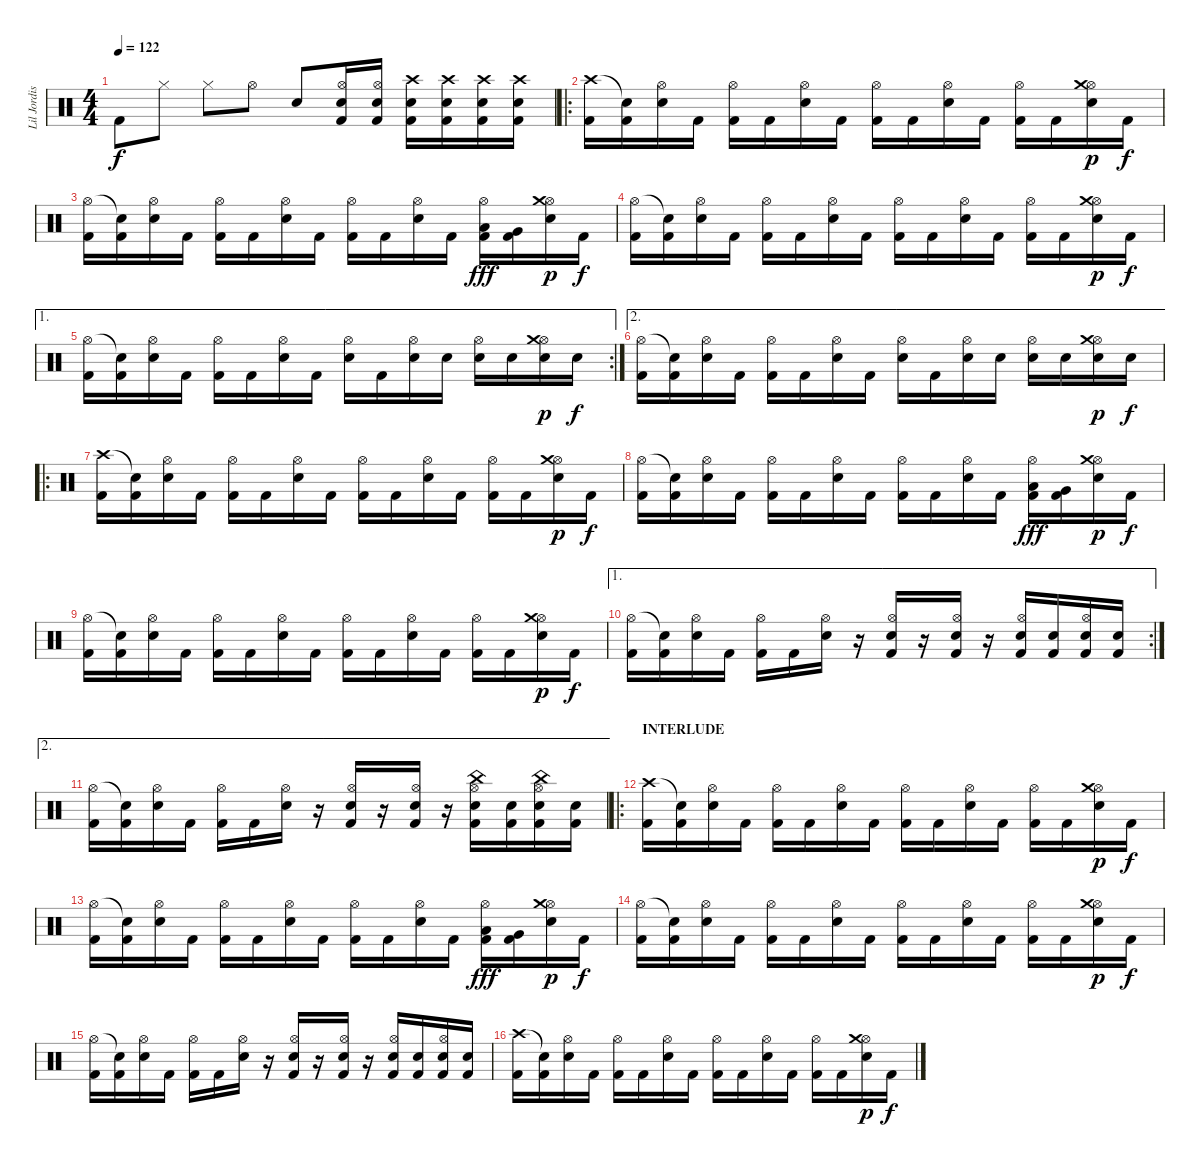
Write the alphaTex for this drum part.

\track ("Lil Jordison" "Lil Jordis") {instrument percussion}
\staff {score}
\articulation defaults
\ts (4 4)
\tempo 122
\clef neutral
\ks c "Kick (hit) 2".8{dy f} "Hi-Hat (closed)".8 "Hi-Hat (closed)".8 "Hi-Hat (open)".8 "Electric Snare (hit)".8
("Hi-Hat (open)" "Kick (hit) 2" "Electric Snare (hit)").16 ("Hi-Hat (open)" "Kick (hit) 2" "Electric Snare (hit)").16 ("Crash high (hit)" "Kick (hit) 2" "Electric Snare (hit)").16 ("Crash high (hit)" "Kick (hit) 2" "Electric Snare (hit)").16 ("Crash high (hit)" "Kick (hit) 2" "Electric Snare (hit)").16 ("Crash high (hit)" "Kick (hit) 2" "Electric Snare (hit)").16 |
\ro
("Crash high (hit)" "Kick (hit) 2").16 ("Snare (hit)"{t} "Kick (hit) 2").16 ("Hi-Hat (open)" "Electric Snare (hit)").16 "Kick (hit) 2".16 ("Hi-Hat (open)" "Kick (hit) 2").16 "Kick (hit) 2".16 ("Hi-Hat (open)" "Electric Snare (hit)").16 "Kick (hit) 2".16 ("Hi-Hat (open)" "Kick (hit) 2").16 "Kick (hit) 2".16 ("Hi-Hat (open)" "Electric Snare (hit)").16 "Kick (hit) 2".16 ("Hi-Hat (open)" "Kick (hit) 2").16 "Kick (hit) 2".16 ("Hi-Hat (open)" "Crash medium (hit)" "Electric Snare (hit)").16{dy p} "Kick (hit) 2".16{dy f} |
("Hi-Hat (open)" "Kick (hit) 2").16 ("Snare (hit)"{t} "Kick (hit) 2").16 ("Hi-Hat (open)" "Electric Snare (hit)").16 "Kick (hit) 2".16 ("Hi-Hat (open)" "Kick (hit) 2").16 "Kick (hit) 2".16 ("Hi-Hat (open)" "Electric Snare (hit)").16 "Kick (hit) 2".16 ("Hi-Hat (open)" "Kick (hit) 2").16 "Kick (hit) 2".16 ("Hi-Hat (open)" "Electric Snare (hit)").16 "Kick (hit) 2".16 ("Hi-Hat (open)" "Low Tom (hit)" "Kick (hit) 2").16{dy fff} ("Very Low Tom (hit)" "Kick (hit) 2").16 ("Hi-Hat (open)" "Crash medium (hit)" "Electric Snare (hit)").16{dy p} "Kick (hit) 2".16{dy f} |
("Hi-Hat (open)" "Kick (hit) 2").16 ("Snare (hit)"{t} "Kick (hit) 2").16 ("Hi-Hat (open)" "Electric Snare (hit)").16 "Kick (hit) 2".16 ("Hi-Hat (open)" "Kick (hit) 2").16 "Kick (hit) 2".16 ("Hi-Hat (open)" "Electric Snare (hit)").16 "Kick (hit) 2".16 ("Hi-Hat (open)" "Kick (hit) 2").16 "Kick (hit) 2".16 ("Hi-Hat (open)" "Electric Snare (hit)").16 "Kick (hit) 2".16 ("Hi-Hat (open)" "Kick (hit) 2").16 "Kick (hit) 2".16 ("Hi-Hat (open)" "Crash medium (hit)" "Electric Snare (hit)").16{dy p} "Kick (hit) 2".16{dy f} |
\ae 1
\rc 2
("Hi-Hat (open)" "Kick (hit) 2").16 ("Snare (hit)"{t} "Kick (hit) 2").16 ("Hi-Hat (open)" "Electric Snare (hit)").16 "Kick (hit) 2".16 ("Hi-Hat (open)" "Kick (hit) 2").16 "Kick (hit) 2".16 ("Hi-Hat (open)" "Electric Snare (hit)").16 "Kick (hit) 2".16 ("Hi-Hat (open)" "Electric Snare (hit)").16 "Kick (hit) 2".16 ("Hi-Hat (open)" "Electric Snare (hit)").16 "Electric Snare (hit)".16 ("Hi-Hat (open)" "Electric Snare (hit)").16 "Electric Snare (hit)".16 ("Hi-Hat (open)" "Crash medium (hit)" "Electric Snare (hit)").16{dy p} "Electric Snare (hit)".16{dy f} |
\ae 2
("Hi-Hat (open)" "Kick (hit) 2").16 ("Snare (hit)"{t} "Kick (hit) 2").16 ("Hi-Hat (open)" "Electric Snare (hit)").16 "Kick (hit) 2".16 ("Hi-Hat (open)" "Kick (hit) 2").16 "Kick (hit) 2".16 ("Hi-Hat (open)" "Electric Snare (hit)").16 "Kick (hit) 2".16 ("Hi-Hat (open)" "Electric Snare (hit)").16 "Kick (hit) 2".16 ("Hi-Hat (open)" "Electric Snare (hit)").16 "Electric Snare (hit)".16 ("Hi-Hat (open)" "Electric Snare (hit)").16 "Electric Snare (hit)".16 ("Hi-Hat (open)" "Crash medium (hit)" "Electric Snare (hit)").16{dy p} "Electric Snare (hit)".16{dy f} |
\ro
("Crash high (hit)" "Kick (hit) 2").16 ("Snare (hit)"{t} "Kick (hit) 2").16 ("Hi-Hat (open)" "Electric Snare (hit)").16 "Kick (hit) 2".16 ("Hi-Hat (open)" "Kick (hit) 2").16 "Kick (hit) 2".16 ("Hi-Hat (open)" "Electric Snare (hit)").16 "Kick (hit) 2".16 ("Hi-Hat (open)" "Kick (hit) 2").16 "Kick (hit) 2".16 ("Hi-Hat (open)" "Electric Snare (hit)").16 "Kick (hit) 2".16 ("Hi-Hat (open)" "Kick (hit) 2").16 "Kick (hit) 2".16 ("Hi-Hat (open)" "Crash medium (hit)" "Electric Snare (hit)").16{dy p} "Kick (hit) 2".16{dy f} |
("Hi-Hat (open)" "Kick (hit) 2").16 ("Snare (hit)"{t} "Kick (hit) 2").16 ("Hi-Hat (open)" "Electric Snare (hit)").16 "Kick (hit) 2".16 ("Hi-Hat (open)" "Kick (hit) 2").16 "Kick (hit) 2".16 ("Hi-Hat (open)" "Electric Snare (hit)").16 "Kick (hit) 2".16 ("Hi-Hat (open)" "Kick (hit) 2").16 "Kick (hit) 2".16 ("Hi-Hat (open)" "Electric Snare (hit)").16 "Kick (hit) 2".16 ("Hi-Hat (open)" "Low Tom (hit)" "Kick (hit) 2").16{dy fff} ("Very Low Tom (hit)" "Kick (hit) 2").16 ("Hi-Hat (open)" "Crash medium (hit)" "Electric Snare (hit)").16{dy p} "Kick (hit) 2".16{dy f} |
("Hi-Hat (open)" "Kick (hit) 2").16 ("Snare (hit)"{t} "Kick (hit) 2").16 ("Hi-Hat (open)" "Electric Snare (hit)").16 "Kick (hit) 2".16 ("Hi-Hat (open)" "Kick (hit) 2").16 "Kick (hit) 2".16 ("Hi-Hat (open)" "Electric Snare (hit)").16 "Kick (hit) 2".16 ("Hi-Hat (open)" "Kick (hit) 2").16 "Kick (hit) 2".16 ("Hi-Hat (open)" "Electric Snare (hit)").16 "Kick (hit) 2".16 ("Hi-Hat (open)" "Kick (hit) 2").16 "Kick (hit) 2".16 ("Hi-Hat (open)" "Crash medium (hit)" "Electric Snare (hit)").16{dy p} "Kick (hit) 2".16{dy f} |
\ae 1
\rc 2
("Hi-Hat (open)" "Kick (hit) 2").16 ("Snare (hit)"{t} "Kick (hit) 2").16 ("Hi-Hat (open)" "Electric Snare (hit)").16 "Kick (hit) 2".16 ("Hi-Hat (open)" "Kick (hit) 2").16 "Kick (hit) 2".16 ("Hi-Hat (open)" "Electric Snare (hit)").16 r.16 ("Hi-Hat (open)" "Kick (hit) 2" "Electric Snare (hit)").16 r.16 ("Hi-Hat (open)" "Kick (hit) 2" "Electric Snare (hit)").16 r.16 ("Hi-Hat (open)" "Kick (hit) 2" "Electric Snare (hit)").16 ("Kick (hit) 2" "Electric Snare (hit)").16 ("Hi-Hat (open)" "Kick (hit) 2" "Electric Snare (hit)").16 ("Kick (hit) 2" "Electric Snare (hit)").16 |
\ae 2
("Hi-Hat (open)" "Kick (hit) 2").16 ("Snare (hit)"{t} "Kick (hit) 2").16 ("Hi-Hat (open)" "Electric Snare (hit)").16 "Kick (hit) 2".16 ("Hi-Hat (open)" "Kick (hit) 2").16 "Kick (hit) 2".16 ("Hi-Hat (open)" "Electric Snare (hit)").16 r.16 ("Hi-Hat (open)" "Kick (hit) 2" "Electric Snare (hit)").16 r.16 ("Hi-Hat (open)" "Kick (hit) 2" "Electric Snare (hit)").16 r.16 ("Hi-Hat (open)" "China (hit)" "Kick (hit) 2" "Electric Snare (hit)").16 ("Kick (hit) 2" "Electric Snare (hit)").16 ("Hi-Hat (open)" "China (hit)" "Kick (hit) 2" "Electric Snare (hit)").16 ("Kick (hit) 2" "Electric Snare (hit)").16 |
\ro
\section ("" "INTERLUDE")
("Crash high (hit)" "Kick (hit) 2").16 ("Snare (hit)"{t} "Kick (hit) 2").16 ("Hi-Hat (open)" "Electric Snare (hit)").16 "Kick (hit) 2".16 ("Hi-Hat (open)" "Kick (hit) 2").16 "Kick (hit) 2".16 ("Hi-Hat (open)" "Electric Snare (hit)").16 "Kick (hit) 2".16 ("Hi-Hat (open)" "Kick (hit) 2").16 "Kick (hit) 2".16 ("Hi-Hat (open)" "Electric Snare (hit)").16 "Kick (hit) 2".16 ("Hi-Hat (open)" "Kick (hit) 2").16 "Kick (hit) 2".16 ("Hi-Hat (open)" "Crash medium (hit)" "Electric Snare (hit)").16{dy p} "Kick (hit) 2".16{dy f} |
("Hi-Hat (open)" "Kick (hit) 2").16 ("Snare (hit)"{t} "Kick (hit) 2").16 ("Hi-Hat (open)" "Electric Snare (hit)").16 "Kick (hit) 2".16 ("Hi-Hat (open)" "Kick (hit) 2").16 "Kick (hit) 2".16 ("Hi-Hat (open)" "Electric Snare (hit)").16 "Kick (hit) 2".16 ("Hi-Hat (open)" "Kick (hit) 2").16 "Kick (hit) 2".16 ("Hi-Hat (open)" "Electric Snare (hit)").16 "Kick (hit) 2".16 ("Hi-Hat (open)" "Low Tom (hit)" "Kick (hit) 2").16{dy fff} ("Very Low Tom (hit)" "Kick (hit) 2").16 ("Hi-Hat (open)" "Crash medium (hit)" "Electric Snare (hit)").16{dy p} "Kick (hit) 2".16{dy f} |
("Hi-Hat (open)" "Kick (hit) 2").16 ("Snare (hit)"{t} "Kick (hit) 2").16 ("Hi-Hat (open)" "Electric Snare (hit)").16 "Kick (hit) 2".16 ("Hi-Hat (open)" "Kick (hit) 2").16 "Kick (hit) 2".16 ("Hi-Hat (open)" "Electric Snare (hit)").16 "Kick (hit) 2".16 ("Hi-Hat (open)" "Kick (hit) 2").16 "Kick (hit) 2".16 ("Hi-Hat (open)" "Electric Snare (hit)").16 "Kick (hit) 2".16 ("Hi-Hat (open)" "Kick (hit) 2").16 "Kick (hit) 2".16 ("Hi-Hat (open)" "Crash medium (hit)" "Electric Snare (hit)").16{dy p} "Kick (hit) 2".16{dy f} |
("Hi-Hat (open)" "Kick (hit) 2").16 ("Snare (hit)"{t} "Kick (hit) 2").16 ("Hi-Hat (open)" "Electric Snare (hit)").16 "Kick (hit) 2".16 ("Hi-Hat (open)" "Kick (hit) 2").16 "Kick (hit) 2".16 ("Hi-Hat (open)" "Electric Snare (hit)").16 r.16 ("Hi-Hat (open)" "Kick (hit) 2" "Electric Snare (hit)").16 r.16 ("Hi-Hat (open)" "Kick (hit) 2" "Electric Snare (hit)").16 r.16 ("Hi-Hat (open)" "Kick (hit) 2" "Electric Snare (hit)").16 ("Kick (hit) 2" "Electric Snare (hit)").16 ("Hi-Hat (open)" "Kick (hit) 2" "Electric Snare (hit)").16 ("Kick (hit) 2" "Electric Snare (hit)").16 |
("Crash high (hit)" "Kick (hit) 2").16 ("Snare (hit)"{t} "Kick (hit) 2").16 ("Hi-Hat (open)" "Electric Snare (hit)").16 "Kick (hit) 2".16 ("Hi-Hat (open)" "Kick (hit) 2").16 "Kick (hit) 2".16 ("Hi-Hat (open)" "Electric Snare (hit)").16 "Kick (hit) 2".16 ("Hi-Hat (open)" "Kick (hit) 2").16 "Kick (hit) 2".16 ("Hi-Hat (open)" "Electric Snare (hit)").16 "Kick (hit) 2".16 ("Hi-Hat (open)" "Kick (hit) 2").16 "Kick (hit) 2".16 ("Hi-Hat (open)" "Crash medium (hit)" "Electric Snare (hit)").16{dy p} "Kick (hit) 2".16{dy f}
